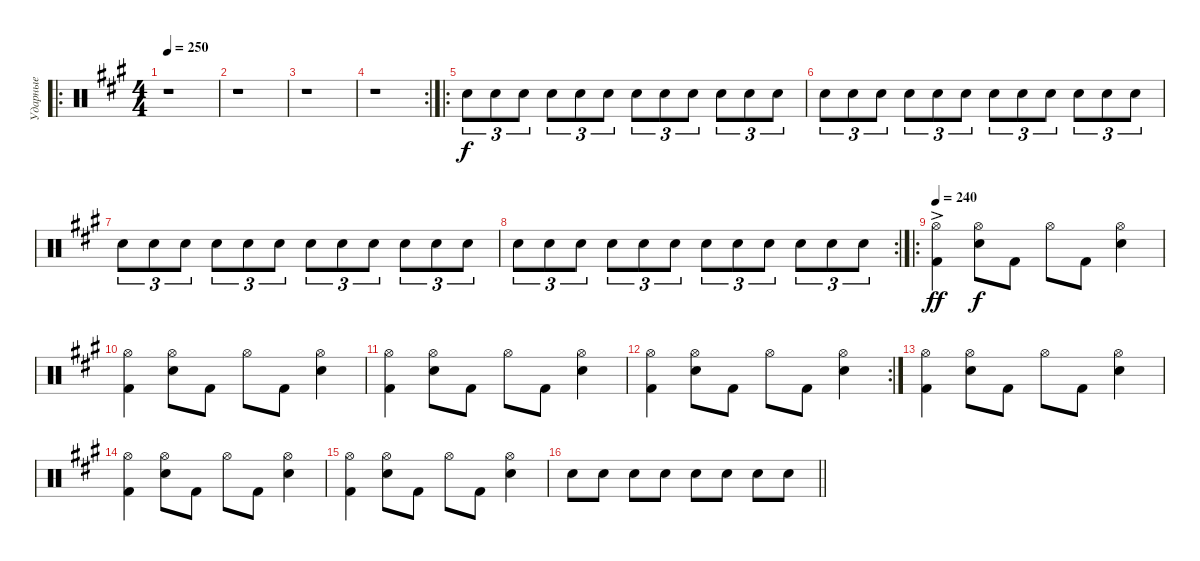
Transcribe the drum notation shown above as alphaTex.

\track ("Ударные" "Ударные") {instrument percussion}
\staff {score}
\articulation defaults
\ro
\ts (4 4)
\tempo 250
\tempo 171
\tempo 250
\clef neutral
\ks a
r.1{dy f} |
r.1 |
r.1 |
\rc 2
r.1 |
\ro "Snare (hit) 2".8{tu (3 2)} "Snare (hit) 2".8{tu (3 2)} "Snare (hit) 2".8{tu (3 2)} "Snare (hit) 2".8{tu (3 2)} "Snare (hit) 2".8{tu (3 2)} "Snare (hit) 2".8{tu (3 2)} "Snare (hit) 2".8{tu (3 2)} "Snare (hit) 2".8{tu (3 2)} "Snare (hit) 2".8{tu (3 2)} "Snare (hit) 2".8{tu (3 2)} "Snare (hit) 2".8{tu (3 2)} "Snare (hit) 2".8{tu (3 2)}
|
"Snare (hit) 2".8{tu (3 2)} "Snare (hit) 2".8{tu (3 2)} "Snare (hit) 2".8{tu (3 2)} "Snare (hit) 2".8{tu (3 2)} "Snare (hit) 2".8{tu (3 2)} "Snare (hit) 2".8{tu (3 2)} "Snare (hit) 2".8{tu (3 2)} "Snare (hit) 2".8{tu (3 2)} "Snare (hit) 2".8{tu (3 2)} "Snare (hit) 2".8{tu (3 2)} "Snare (hit) 2".8{tu (3 2)} "Snare (hit) 2".8{tu (3 2)} |
"Snare (hit) 2".8{tu (3 2)} "Snare (hit) 2".8{tu (3 2)} "Snare (hit) 2".8{tu (3 2)} "Snare (hit) 2".8{tu (3 2)} "Snare (hit) 2".8{tu (3 2)} "Snare (hit) 2".8{tu (3 2)} "Snare (hit) 2".8{tu (3 2)} "Snare (hit) 2".8{tu (3 2)} "Snare (hit) 2".8{tu (3 2)} "Snare (hit) 2".8{tu (3 2)} "Snare (hit) 2".8{tu (3 2)} "Snare (hit) 2".8{tu (3 2)} |
\rc 2 "Snare (hit) 2".8{tu (3 2)} "Snare (hit) 2".8{tu (3 2)} "Snare (hit) 2".8{tu (3 2)} "Snare (hit) 2".8{tu (3 2)} "Snare (hit) 2".8{tu (3 2)} "Snare (hit) 2".8{tu (3 2)} "Snare (hit) 2".8{tu (3 2)} "Snare (hit) 2".8{tu (3 2)} "Snare (hit) 2".8{tu (3 2)} "Snare (hit) 2".8{tu (3 2)} "Snare (hit) 2".8{tu (3 2)} "Snare (hit) 2".8{tu (3 2)}
|
\ro
\tempo 240
("Kick (hit) 2"{ac} "Hi-Hat (open)"{ac}).4{dy ff} ("Snare (hit) 2" "Hi-Hat (open)").8{dy f} "Kick (hit) 2".8 "Hi-Hat (open)".8 "Kick (hit) 2".8 ("Snare (hit) 2" "Hi-Hat (open)").4 |
("Kick (hit) 2" "Hi-Hat (open)").4 ("Snare (hit) 2" "Hi-Hat (open)").8 "Kick (hit) 2".8 "Hi-Hat (open)".8 "Kick (hit) 2".8 ("Snare (hit) 2" "Hi-Hat (open)").4 |
("Kick (hit) 2" "Hi-Hat (open)").4 ("Snare (hit) 2" "Hi-Hat (open)").8 "Kick (hit) 2".8 "Hi-Hat (open)".8 "Kick (hit) 2".8 ("Snare (hit) 2" "Hi-Hat (open)").4 |
\rc 2
("Kick (hit) 2" "Hi-Hat (open)").4 ("Snare (hit) 2" "Hi-Hat (open)").8 "Kick (hit) 2".8 "Hi-Hat (open)".8 "Kick (hit) 2".8 ("Snare (hit) 2" "Hi-Hat (open)").4 |
("Kick (hit) 2" "Hi-Hat (open)").4 ("Snare (hit) 2" "Hi-Hat (open)").8 "Kick (hit) 2".8 "Hi-Hat (open)".8 "Kick (hit) 2".8 ("Snare (hit) 2" "Hi-Hat (open)").4 |
("Kick (hit) 2" "Hi-Hat (open)").4 ("Snare (hit) 2" "Hi-Hat (open)").8 "Kick (hit) 2".8 "Hi-Hat (open)".8 "Kick (hit) 2".8 ("Snare (hit) 2" "Hi-Hat (open)").4 |
("Kick (hit) 2" "Hi-Hat (open)").4 ("Snare (hit) 2" "Hi-Hat (open)").8 "Kick (hit) 2".8 "Hi-Hat (open)".8 "Kick (hit) 2".8 ("Snare (hit) 2" "Hi-Hat (open)").4 |
\barLineRight lightlight "Snare (hit) 2".8 "Snare (hit) 2".8 "Snare (hit) 2".8 "Snare (hit) 2".8 "Snare (hit) 2".8 "Snare (hit) 2".8 "Snare (hit) 2".8 "Snare (hit) 2".8
